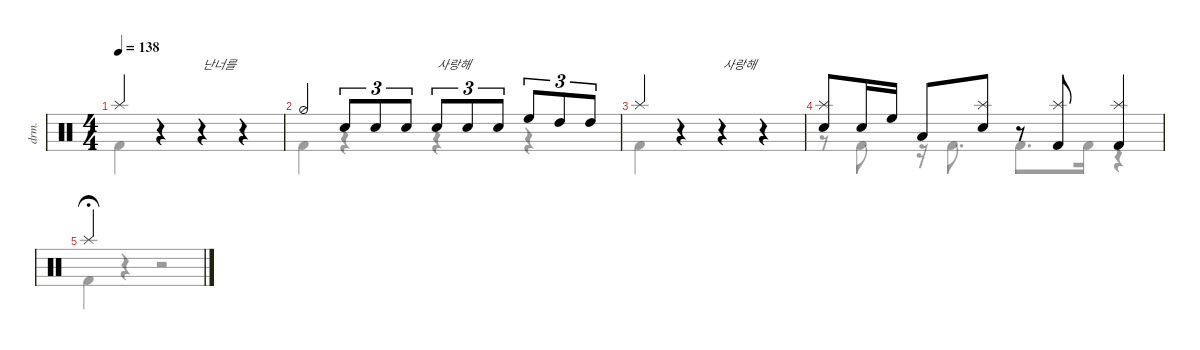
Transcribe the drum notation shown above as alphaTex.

\defaultSystemsLayout 4
\hideDynamics
\bracketExtendMode nobrackets
\track ("Drumkit" "drm.") {instrument percussion}
\staff {score}
\articulation defaults
\voice
\ts (4 4)
\tempo 138
\clef neutral
\ks c "Splash (hit)".4{dy mf beam Up}
r.4{beam Up} r.4{txt "난너를" beam Up} r.4{beam Up} |
"Hi-Hat (half)".4{beam Up} "Snare (hit) 2".8{tu (3 2) beam Up} "Snare (hit) 2".8{tu (3 2) beam Up} "Snare (hit) 2".8{tu (3 2) beam Up} "Snare (hit) 2".8{tu (3 2) txt "사랑해" beam Up} "Snare (hit) 2".8{tu (3 2) beam Up} "Snare (hit) 2".8{tu (3 2) beam Up} "High Floor Tom (hit)".8{tu (3 2) beam Up} "High Tom (hit)".8{tu (3 2) beam Up} "High Tom (hit)".8{tu (3 2) beam Up} |
"Splash (hit)".4{beam Up} r.4{beam Up} r.4{txt "사랑해" beam Up} r.4{beam Up} |
("Splash (hit)" "Snare (hit) 2").8{beam Up} "Snare (hit) 2".16{beam Up} "High Floor Tom (hit)".16{beam Up} "Low Tom (hit)".8{beam Up} ("Snare (hit) 2" "Splash (hit)").8{beam Up} r.8{beam Up} ("Splash (hit)" "Kick (hit) 2").8{beam Up} ("Splash (hit)" "Kick (hit) 2").4{beam Up} |
"Splash (hit)".4{fermata (medium 0.5) beam Up} |
\voice
\clef neutral
\ottava regular
\simile none
\ks c
|
|
|
|
|
\voice
\clef neutral
\ottava regular
\simile none
\ks c "Kick (hit) 2".4{dy mf beam Down}
r.4{beam Down} r.4{beam Down} r.4{beam Down} |
"Kick (hit) 2".4{beam Down} r.4{beam Down} r.4{beam Down} r.4{beam Down} |
"Kick (hit) 2".4{beam Down} r.4{beam Down} r.4{beam Down} r.4{beam Down} |
r.8{beam Down} "Kick (hit) 2".8{beam Down} r.16{beam Down} "Kick (hit) 2".8{d beam Down} "Kick (hit) 2".8{d beam Down} "Kick (hit) 2".16{beam Down} r.4{beam Down} |
"Kick (hit) 2".4{fermata (medium 0.5) beam Down} r.4{beam Down} r.2{beam Down} |
